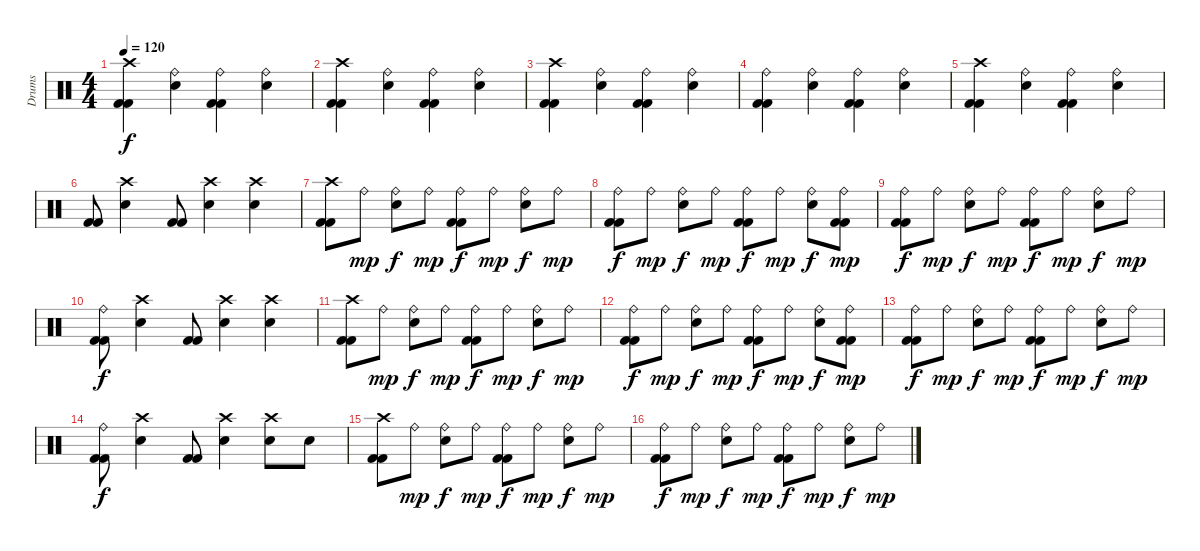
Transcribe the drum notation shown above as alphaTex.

\track ("Drums" "Drums") {instrument percussion}
\staff {score}
\articulation defaults
\ts (4 4)
\tempo 120
\clef neutral
\ks c
("Crash high (hit)" "Kick (hit) 2" "Kick (hit) 2").4{dy f} ("Ride (bell)" "Snare (hit) 2").4 ("Ride (bell)" "Kick (hit) 2" "Kick (hit) 2").4 ("Ride (bell)" "Snare (hit) 2").4 |
("Crash high (hit)" "Kick (hit) 2" "Kick (hit) 2").4 ("Ride (bell)" "Snare (hit) 2").4 ("Ride (bell)" "Kick (hit) 2" "Kick (hit) 2").4 ("Ride (bell)" "Snare (hit) 2").4 |
("Crash high (hit)" "Kick (hit) 2" "Kick (hit) 2").4 ("Ride (bell)" "Snare (hit) 2").4 ("Ride (bell)" "Kick (hit) 2" "Kick (hit) 2").4 ("Ride (bell)" "Snare (hit) 2").4 |
("Ride (bell)" "Kick (hit) 2" "Kick (hit) 2").4 ("Ride (bell)" "Snare (hit) 2").4 ("Ride (bell)" "Kick (hit) 2" "Kick (hit) 2").4 ("Ride (bell)" "Snare (hit) 2").4 |
("Crash high (hit)" "Kick (hit) 2" "Kick (hit) 2").4 ("Ride (bell)" "Snare (hit) 2").4 ("Ride (bell)" "Kick (hit) 2" "Kick (hit) 2").4 ("Ride (bell)" "Snare (hit) 2").4 |
("Kick (hit) 2" "Kick (hit) 2").8 ("Crash high (hit)" "Snare (hit) 2").4 ("Kick (hit) 2" "Kick (hit) 2").8 ("Crash high (hit)" "Snare (hit) 2").4 ("Crash high (hit)" "Snare (hit) 2").4 |
("Crash high (hit)" "Kick (hit) 2" "Kick (hit) 2").8 "Ride (bell)".8{dy mp} ("Ride (bell)" "Snare (hit) 2").8{dy f} "Ride (bell)".8{dy mp} ("Ride (bell)" "Kick (hit) 2" "Kick (hit) 2").8{dy f} "Ride (bell)".8{dy mp} ("Ride (bell)" "Snare (hit) 2").8{dy f} "Ride (bell)".8{dy mp} |
("Ride (bell)" "Kick (hit) 2" "Kick (hit) 2").8{dy f} "Ride (bell)".8{dy mp} ("Ride (bell)" "Snare (hit) 2").8{dy f} "Ride (bell)".8{dy mp} ("Ride (bell)" "Kick (hit) 2" "Kick (hit) 2").8{dy f} "Ride (bell)".8{dy mp} ("Ride (bell)" "Snare (hit) 2").8{dy f} ("Ride (bell)" "Kick (hit) 2" "Kick (hit) 2").8{dy mp} |
("Ride (bell)" "Kick (hit) 2" "Kick (hit) 2").8{dy f} "Ride (bell)".8{dy mp} ("Ride (bell)" "Snare (hit) 2").8{dy f} "Ride (bell)".8{dy mp} ("Ride (bell)" "Kick (hit) 2" "Kick (hit) 2").8{dy f} "Ride (bell)".8{dy mp} ("Ride (bell)" "Snare (hit) 2").8{dy f} "Ride (bell)".8{dy mp} |
("Ride (bell)" "Kick (hit) 2" "Kick (hit) 2").8{dy f} ("Crash high (hit)" "Snare (hit) 2").4 ("Kick (hit) 2" "Kick (hit) 2").8 ("Crash high (hit)" "Snare (hit) 2").4 ("Crash high (hit)" "Snare (hit) 2").4 |
("Crash high (hit)" "Kick (hit) 2" "Kick (hit) 2").8 "Ride (bell)".8{dy mp} ("Ride (bell)" "Snare (hit) 2").8{dy f} "Ride (bell)".8{dy mp} ("Ride (bell)" "Kick (hit) 2" "Kick (hit) 2").8{dy f} "Ride (bell)".8{dy mp} ("Ride (bell)" "Snare (hit) 2").8{dy f} "Ride (bell)".8{dy mp} |
("Ride (bell)" "Kick (hit) 2" "Kick (hit) 2").8{dy f} "Ride (bell)".8{dy mp} ("Ride (bell)" "Snare (hit) 2").8{dy f} "Ride (bell)".8{dy mp} ("Ride (bell)" "Kick (hit) 2" "Kick (hit) 2").8{dy f} "Ride (bell)".8{dy mp} ("Ride (bell)" "Snare (hit) 2").8{dy f} ("Ride (bell)" "Kick (hit) 2" "Kick (hit) 2").8{dy mp} |
("Ride (bell)" "Kick (hit) 2" "Kick (hit) 2").8{dy f} "Ride (bell)".8{dy mp} ("Ride (bell)" "Snare (hit) 2").8{dy f} "Ride (bell)".8{dy mp} ("Ride (bell)" "Kick (hit) 2" "Kick (hit) 2").8{dy f} "Ride (bell)".8{dy mp} ("Ride (bell)" "Snare (hit) 2").8{dy f} "Ride (bell)".8{dy mp} |
("Ride (bell)" "Kick (hit) 2" "Kick (hit) 2").8{dy f} ("Crash high (hit)" "Snare (hit) 2").4 ("Kick (hit) 2" "Kick (hit) 2").8 ("Crash high (hit)" "Snare (hit) 2").4 ("Crash high (hit)" "Snare (hit) 2").8 "Snare (hit) 2".8 |
("Crash high (hit)" "Kick (hit) 2" "Kick (hit) 2").8 "Ride (bell)".8{dy mp} ("Ride (bell)" "Snare (hit) 2").8{dy f} "Ride (bell)".8{dy mp} ("Ride (bell)" "Kick (hit) 2" "Kick (hit) 2").8{dy f} "Ride (bell)".8{dy mp} ("Ride (bell)" "Snare (hit) 2").8{dy f} "Ride (bell)".8{dy mp} |
("Ride (bell)" "Kick (hit) 2" "Kick (hit) 2").8{dy f} "Ride (bell)".8{dy mp} ("Ride (bell)" "Snare (hit) 2").8{dy f} "Ride (bell)".8{dy mp} ("Ride (bell)" "Kick (hit) 2" "Kick (hit) 2").8{dy f} "Ride (bell)".8{dy mp} ("Ride (bell)" "Snare (hit) 2").8{dy f} "Ride (bell)".8{dy mp}
